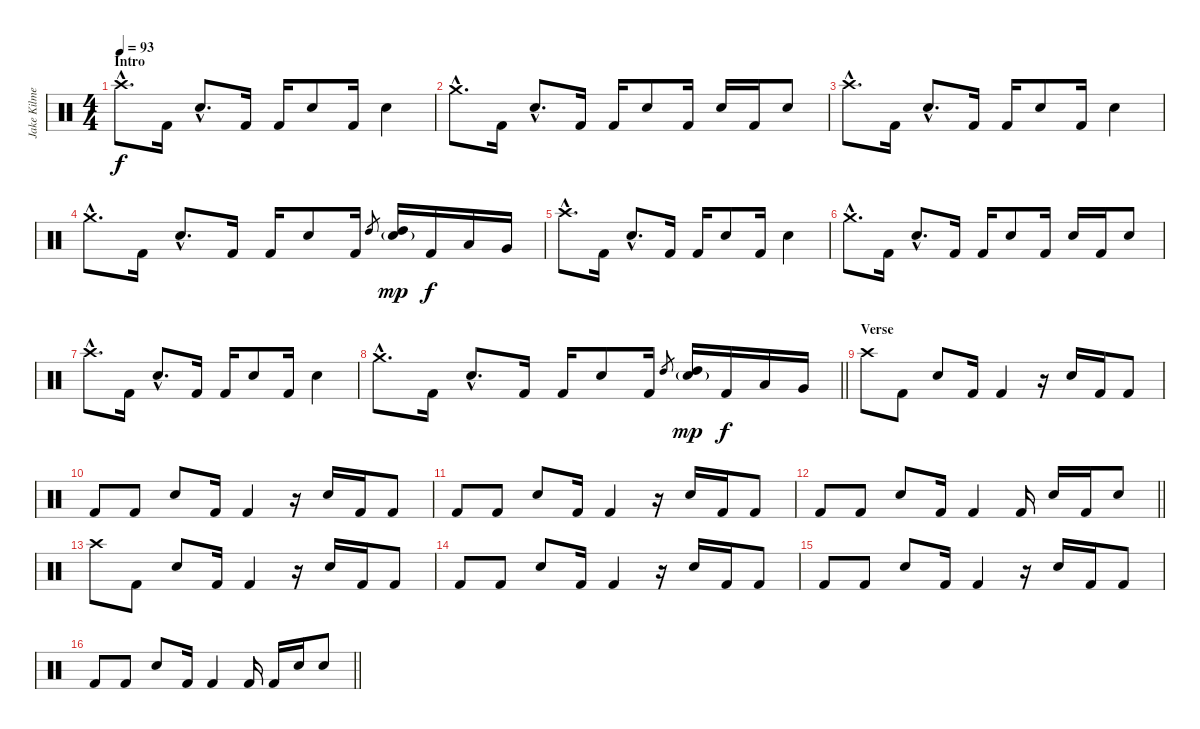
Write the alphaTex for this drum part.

\track ("Jake Kilmer (Drums)" "Jake Kilme") {instrument percussion}
\staff {score}
\articulation defaults
\ts (4 4)
\section ("" "Intro")
\tempo 93
\clef neutral
\ks c "Crash high (hit)"{hac}.8{d dy f} "Kick (hit) 2".16 "Electric Snare (hit)"{hac}.8{d} "Kick (hit) 2".16 "Kick (hit) 2".16 "Electric Snare (hit)".8 "Kick (hit) 2".16 "Electric Snare (hit)".4
|
"Crash medium (hit)"{hac}.8{d} "Kick (hit) 2".16 "Electric Snare (hit)"{hac}.8{d} "Kick (hit) 2".16 "Kick (hit) 2".16 "Electric Snare (hit)".8 "Kick (hit) 2".16 "Electric Snare (hit)".16 "Kick (hit) 2".16 "Electric Snare (hit)".8 |
"Crash high (hit)"{hac}.8{d} "Kick (hit) 2".16 "Electric Snare (hit)"{hac}.8{d} "Kick (hit) 2".16 "Kick (hit) 2".16 "Electric Snare (hit)".8 "Kick (hit) 2".16 "Electric Snare (hit)".4 |
"Crash medium (hit)"{hac}.8{d} "Kick (hit) 2".16 "Electric Snare (hit)"{hac}.8{d} "Kick (hit) 2".16 "Kick (hit) 2".16 "Electric Snare (hit)".8 "Kick (hit) 2".16 "High Tom (hit)".8{gr} ("Electric Snare (hit)"{g} "High Tom (hit)").16{dy mp} "Kick (hit) 2".16{dy f} "Low Tom (hit)".16 "Very Low Tom (hit)".16 |
"Crash high (hit)"{hac}.8{d} "Kick (hit) 2".16 "Electric Snare (hit)"{hac}.8{d} "Kick (hit) 2".16 "Kick (hit) 2".16 "Electric Snare (hit)".8 "Kick (hit) 2".16 "Electric Snare (hit)".4 |
"Crash medium (hit)"{hac}.8{d} "Kick (hit) 2".16 "Electric Snare (hit)"{hac}.8{d} "Kick (hit) 2".16 "Kick (hit) 2".16 "Electric Snare (hit)".8 "Kick (hit) 2".16 "Electric Snare (hit)".16 "Kick (hit) 2".16 "Electric Snare (hit)".8 |
"Crash high (hit)"{hac}.8{d} "Kick (hit) 2".16 "Electric Snare (hit)"{hac}.8{d} "Kick (hit) 2".16 "Kick (hit) 2".16 "Electric Snare (hit)".8 "Kick (hit) 2".16 "Electric Snare (hit)".4 |
\barLineRight lightlight "Crash medium (hit)"{hac}.8{d} "Kick (hit) 2".16 "Electric Snare (hit)"{hac}.8{d} "Kick (hit) 2".16 "Kick (hit) 2".16 "Electric Snare (hit)".8 "Kick (hit) 2".16 "High Tom (hit)".8{gr}
("Electric Snare (hit)"{g} "High Tom (hit)").16{dy mp} "Kick (hit) 2".16{dy f} "Low Tom (hit)".16 "Very Low Tom (hit)".16 |
\section ("" "Verse")
"Crash high (hit)".8 "Kick (hit) 2".8 "Electric Snare (hit)".8 "Kick (hit) 2".16 "Kick (hit) 2".4 r.16 "Electric Snare (hit)".16 "Kick (hit) 2".16 "Kick (hit) 2".8 |
"Kick (hit) 2".8 "Kick (hit) 2".8 "Electric Snare (hit)".8 "Kick (hit) 2".16 "Kick (hit) 2".4 r.16 "Electric Snare (hit)".16 "Kick (hit) 2".16 "Kick (hit) 2".8 |
"Kick (hit) 2".8 "Kick (hit) 2".8 "Electric Snare (hit)".8 "Kick (hit) 2".16 "Kick (hit) 2".4 r.16 "Electric Snare (hit)".16 "Kick (hit) 2".16 "Kick (hit) 2".8 |
\barLineRight lightlight "Kick (hit) 2".8 "Kick (hit) 2".8 "Electric Snare (hit)".8 "Kick (hit) 2".16 "Kick (hit) 2".4 "Kick (hit) 2".16 "Electric Snare (hit)".16 "Kick (hit) 2".16 "Electric Snare (hit)".8
|
"Crash high (hit)".8 "Kick (hit) 2".8 "Electric Snare (hit)".8 "Kick (hit) 2".16 "Kick (hit) 2".4 r.16 "Electric Snare (hit)".16 "Kick (hit) 2".16 "Kick (hit) 2".8 |
"Kick (hit) 2".8 "Kick (hit) 2".8 "Electric Snare (hit)".8 "Kick (hit) 2".16 "Kick (hit) 2".4 r.16 "Electric Snare (hit)".16 "Kick (hit) 2".16 "Kick (hit) 2".8 |
"Kick (hit) 2".8 "Kick (hit) 2".8 "Electric Snare (hit)".8 "Kick (hit) 2".16 "Kick (hit) 2".4 r.16 "Electric Snare (hit)".16 "Kick (hit) 2".16 "Kick (hit) 2".8 |
\barLineRight lightlight "Kick (hit) 2".8 "Kick (hit) 2".8 "Electric Snare (hit)".8 "Kick (hit) 2".16 "Kick (hit) 2".4 "Kick (hit) 2".16 "Kick (hit) 2".16 "Electric Snare (hit)".16 "Electric Snare (hit)".8
